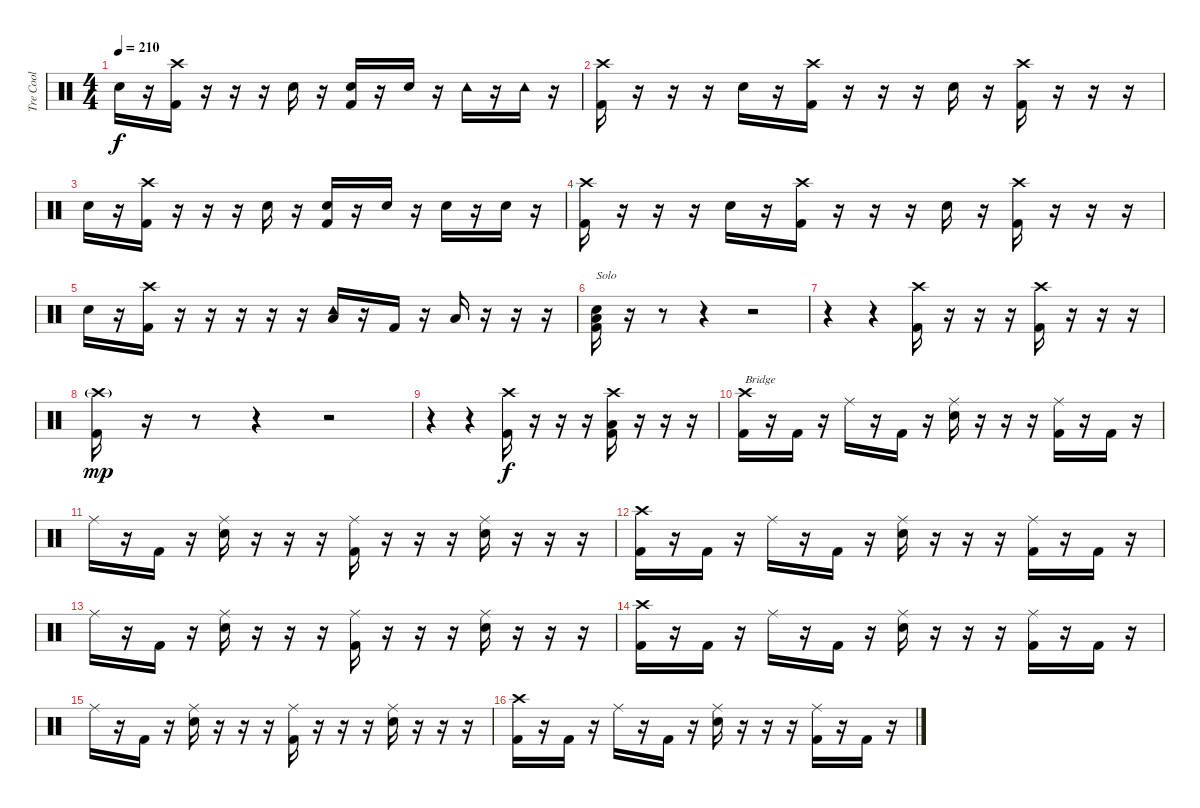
\track ("Tre Cool" "Tre Cool") {instrument percussion}
\staff {score}
\articulation defaults
\ts (4 4)
\tempo 210
\clef neutral
\ks c "Snare (hit) 2".16{dy f}
r.16 ("Crash high (hit)" "Kick (hit) 2").16 r.16 r.16 r.16 "Snare (hit) 2".16 r.16 ("Snare (hit) 2" "Kick (hit) 2").16 r.16 "Snare (hit) 2".16 r.16 "Tambourine (hit)".16 r.16 "Tambourine (hit)".16 r.16 |
("Crash high (hit)" "Kick (hit) 2").16 r.16 r.16 r.16 "Snare (hit) 2".16 r.16 ("Crash high (hit)" "Kick (hit) 2").16 r.16 r.16 r.16 "Snare (hit) 2".16 r.16 ("Crash high (hit)" "Kick (hit) 2").16 r.16 r.16 r.16 |
"Snare (hit) 2".16 r.16 ("Crash high (hit)" "Kick (hit) 2").16 r.16 r.16 r.16 "Snare (hit) 2".16 r.16 ("Snare (hit) 2" "Kick (hit) 2").16 r.16 "Snare (hit) 2".16 r.16 "Snare (hit) 2".16 r.16 "Snare (hit) 2".16 r.16 |
("Crash high (hit)" "Kick (hit) 2").16 r.16 r.16 r.16 "Snare (hit) 2".16 r.16 ("Crash high (hit)" "Kick (hit) 2").16 r.16 r.16 r.16 "Snare (hit) 2".16 r.16 ("Crash high (hit)" "Kick (hit) 2").16 r.16 r.16 r.16 |
"Snare (hit) 2".16 r.16 ("Crash high (hit)" "Kick (hit) 2").16 r.16 r.16 r.16 r.16 r.16 ("Tambourine (hit)" "Low Floor Tom (hit)").16 r.16 "Kick (hit) 2".16 r.16 "Low Floor Tom (hit)".16 r.16 r.16 r.16 |
("Low Floor Tom (hit)" "Snare (hit) 2" "Kick (hit) 2").16{txt "Solo"} r.16 r.8 r.4 r.2 |
r.4 r.4 ("Crash high (hit)" "Kick (hit) 2").16 r.16 r.16 r.16 ("Crash high (hit)" "Kick (hit) 2").16 r.16 r.16 r.16 |
("Crash high (hit)"{g} "Kick (hit) 2").16{dy mp} r.16 r.8 r.4 r.2 |
r.4 r.4 ("Crash high (hit)" "Kick (hit) 2").16{dy f} r.16 r.16 r.16 ("Crash high (hit)" "Low Floor Tom (hit)" "Kick (hit) 2").16 r.16 r.16 r.16 |
("Crash high (hit)" "Kick (hit) 2").16{txt "Bridge"} r.16 "Kick (hit) 2".16 r.16 "Ride (middle)".16 r.16 "Kick (hit) 2".16 r.16 ("Ride (middle)" "Snare (hit) 2").16 r.16 r.16 r.16 ("Ride (middle)" "Kick (hit) 2").16 r.16 "Kick (hit) 2".16 r.16 |
"Ride (middle)".16 r.16 "Kick (hit) 2".16 r.16 ("Ride (middle)" "Snare (hit) 2").16 r.16 r.16 r.16 ("Ride (middle)" "Kick (hit) 2").16 r.16 r.16 r.16 ("Ride (middle)" "Snare (hit) 2").16 r.16 r.16 r.16 |
("Crash high (hit)" "Kick (hit) 2").16 r.16 "Kick (hit) 2".16 r.16 "Ride (middle)".16 r.16 "Kick (hit) 2".16 r.16 ("Ride (middle)" "Snare (hit) 2").16 r.16 r.16 r.16 ("Ride (middle)" "Kick (hit) 2").16 r.16 "Kick (hit) 2".16 r.16 |
"Ride (middle)".16 r.16 "Kick (hit) 2".16 r.16 ("Ride (middle)" "Snare (hit) 2").16 r.16 r.16 r.16 ("Ride (middle)" "Kick (hit) 2").16 r.16 r.16 r.16 ("Ride (middle)" "Snare (hit) 2").16 r.16 r.16 r.16 |
("Crash high (hit)" "Kick (hit) 2").16 r.16 "Kick (hit) 2".16 r.16 "Ride (middle)".16 r.16 "Kick (hit) 2".16 r.16 ("Ride (middle)" "Snare (hit) 2").16 r.16 r.16 r.16 ("Ride (middle)" "Kick (hit) 2").16 r.16 "Kick (hit) 2".16 r.16 |
"Ride (middle)".16 r.16 "Kick (hit) 2".16 r.16 ("Ride (middle)" "Snare (hit) 2").16 r.16 r.16 r.16 ("Ride (middle)" "Kick (hit) 2").16 r.16 r.16 r.16 ("Ride (middle)" "Snare (hit) 2").16 r.16 r.16 r.16 |
("Crash high (hit)" "Kick (hit) 2").16 r.16 "Kick (hit) 2".16 r.16 "Ride (middle)".16 r.16 "Kick (hit) 2".16 r.16 ("Ride (middle)" "Snare (hit) 2").16 r.16 r.16 r.16 ("Ride (middle)" "Kick (hit) 2").16 r.16 "Kick (hit) 2".16 r.16
